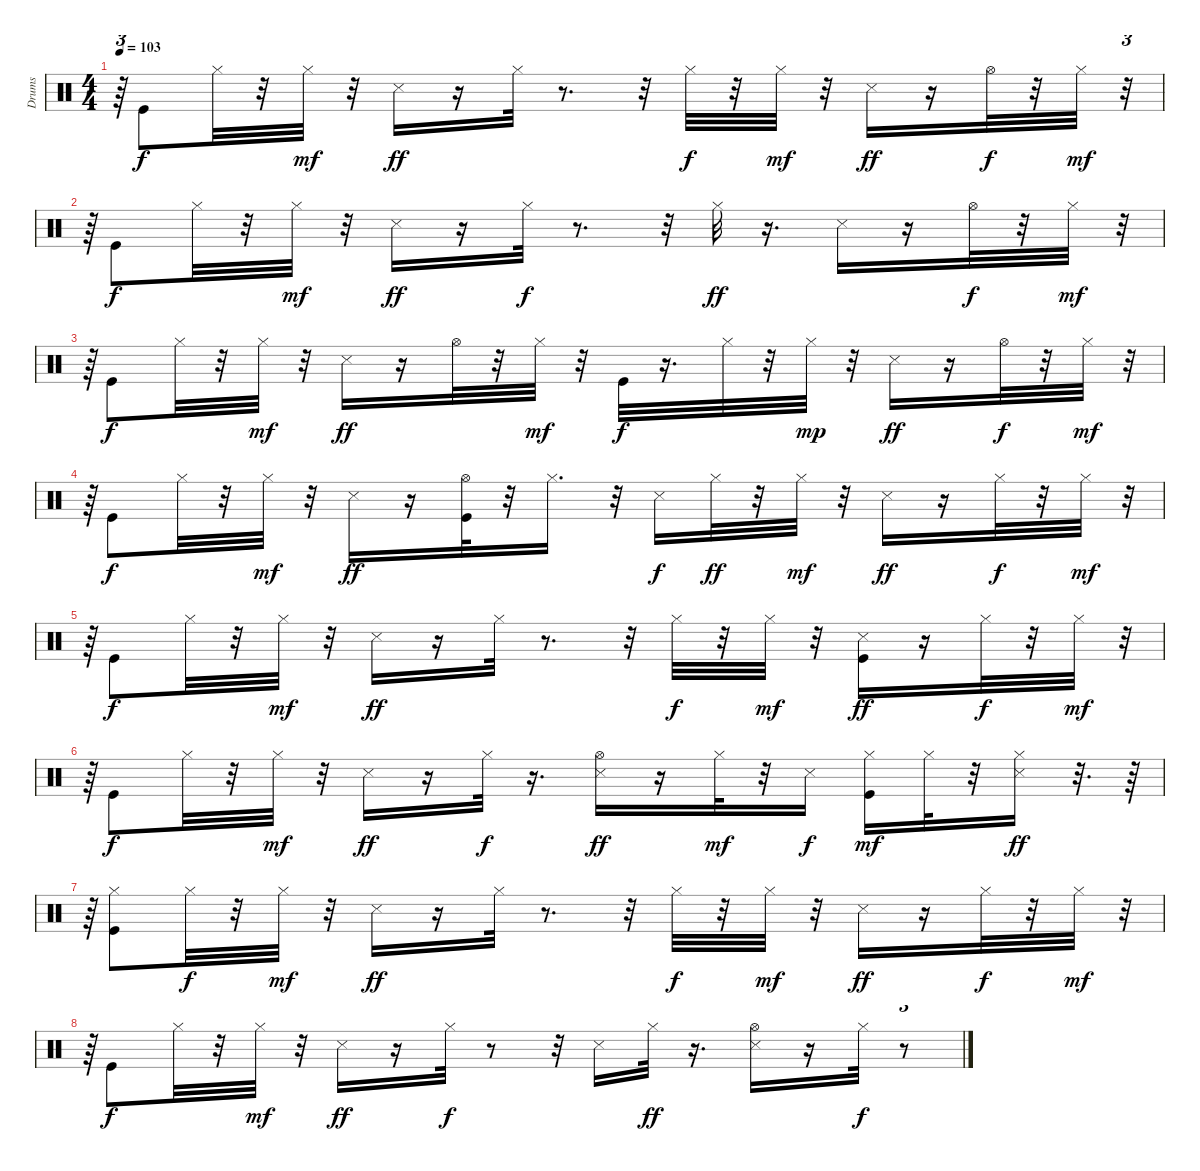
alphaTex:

\track ("Drums" "Drums") {instrument percussion}
\staff {score}
\articulation defaults
\ts (4 4)
\tempo 103
\clef neutral
\ks c
r.64{tu (3 2) dy mf} "Kick (hit)".8{dy f} "Hi-Hat (closed)".32 r.32 "Hi-Hat (closed)".32{dy mf} r.32 "Snare (side stick) 3".16{dy ff} r.16 "Hi-Hat (closed)".32 r.8{d} r.32 "Hi-Hat (closed)".32{dy f} r.32 "Hi-Hat (closed)".32{dy mf} r.32 "Snare (side stick) 3".16{dy ff} r.16 "Hi-Hat (open)".32{dy f} r.32 "Hi-Hat (closed)".32{dy mf} r.32{tu (3 2)} |
r.64{tu (3 2)} "Kick (hit)".8{dy f} "Hi-Hat (closed)".32 r.32 "Hi-Hat (closed)".32{dy mf} r.32 "Snare (side stick) 3".16{dy ff} r.16 "Hi-Hat (closed)".32{dy f} r.8{d} r.32 "Hi-Hat (closed)".32{dy ff} r.16{d} "Snare (side stick) 3".16 r.16 "Hi-Hat (open)".32{dy f} r.32 "Hi-Hat (closed)".32{dy mf} r.32{tu (3 2)} |
r.64{tu (3 2)} "Kick (hit)".8{dy f} "Hi-Hat (closed)".32 r.32 "Hi-Hat (closed)".32{dy mf} r.32 "Snare (side stick) 3".16{dy ff} r.16 "Hi-Hat (open)".32 r.32 "Hi-Hat (closed)".32{dy mf} r.32 "Kick (hit)".32{dy f} r.16{d} "Hi-Hat (closed)".32 r.32 "Hi-Hat (closed)".32{dy mp} r.32 "Snare (side stick) 3".16{dy ff} r.16 "Hi-Hat (open)".32{dy f} r.32 "Hi-Hat (closed)".32{dy mf} r.32{tu (3 2)} |
r.64{tu (3 2)} "Kick (hit)".8{dy f} "Hi-Hat (closed)".32 r.32 "Hi-Hat (closed)".32{dy mf} r.32 "Snare (side stick) 3".16{dy ff} r.16 ("Hi-Hat (open)" "Kick (hit)").32 r.32 "Hi-Hat (closed)".16{d} r.32 "Snare (side stick) 3".16{dy f} "Hi-Hat (closed)".32{dy ff} r.32 "Hi-Hat (closed)".32{dy mf} r.32 "Snare (side stick) 3".16{dy ff} r.16 "Hi-Hat (closed)".32{dy f} r.32 "Hi-Hat (closed)".32{dy mf} r.32{tu (3 2)} |
r.64{tu (3 2)} "Kick (hit)".8{dy f} "Hi-Hat (closed)".32 r.32 "Hi-Hat (closed)".32{dy mf} r.32 "Snare (side stick) 3".16{dy ff} r.16 "Hi-Hat (closed)".32 r.8{d} r.32 "Hi-Hat (closed)".32{dy f} r.32 "Hi-Hat (closed)".32{dy mf} r.32 ("Kick (hit)" "Snare (side stick) 3").16{dy ff} r.16 "Hi-Hat (closed)".32{dy f} r.32 "Hi-Hat (closed)".32{dy mf} r.32{tu (3 2)} |
r.64{tu (3 2)} "Kick (hit)".8{dy f} "Hi-Hat (closed)".32 r.32 "Hi-Hat (closed)".32{dy mf} r.32 "Snare (side stick) 3".16{dy ff} r.16 "Hi-Hat (closed)".32{dy f} r.16{d} ("Hi-Hat (open)" "Snare (side stick) 3").16{dy ff} r.16 "Hi-Hat (closed)".32{dy mf} r.32 "Snare (side stick) 3".16{dy f} ("Kick (hit)" "Hi-Hat (closed)").16{dy mf} "Hi-Hat (closed)".32 r.32 ("Snare (side stick) 3" "Hi-Hat (closed)").16{dy ff} r.32{d} r.64 |
r.64{tu (3 2)} ("Kick (hit)" "Hi-Hat (closed)").8 "Hi-Hat (closed)".32{dy f} r.32 "Hi-Hat (closed)".32{dy mf} r.32 "Snare (side stick) 3".16{dy ff} r.16 "Hi-Hat (closed)".32 r.8{d} r.32 "Hi-Hat (closed)".32{dy f} r.32 "Hi-Hat (closed)".32{dy mf} r.32 "Snare (side stick) 3".16{dy ff} r.16 "Hi-Hat (closed)".32{dy f} r.32 "Hi-Hat (closed)".32{dy mf} r.32{tu (3 2)} |
r.64{tu (3 2)} "Kick (hit)".8{dy f} "Hi-Hat (closed)".32 r.32 "Hi-Hat (closed)".32{dy mf} r.32 "Snare (side stick) 3".16{dy ff} r.16 "Hi-Hat (closed)".32{dy f} r.8 r.32 "Snare (side stick) 3".16 "Hi-Hat (closed)".32{dy ff} r.16{d} ("Hi-Hat (open)" "Snare (side stick) 3").16 r.16 "Hi-Hat (closed)".32{dy f} r.8{tu (3 2)}
